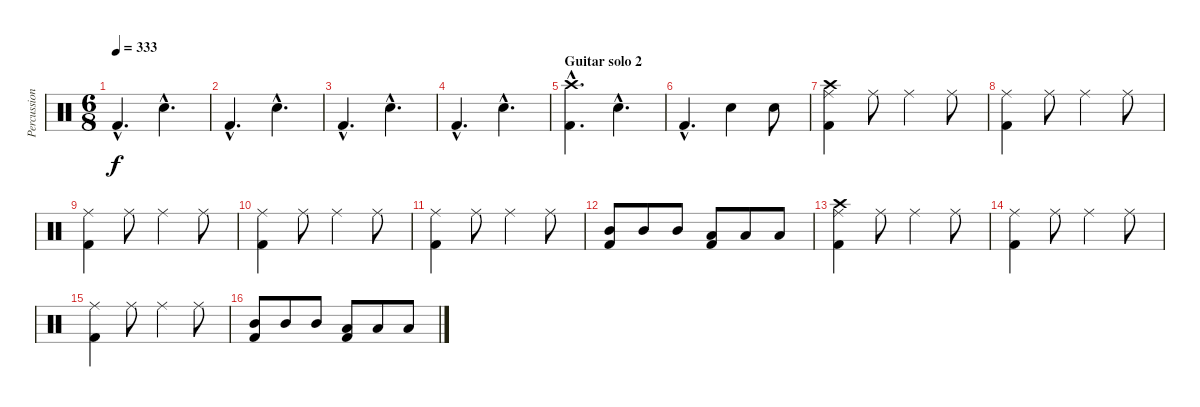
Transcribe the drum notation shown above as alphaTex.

\track ("Percussion" "Percussion") {instrument percussion}
\staff {score}
\articulation defaults
\ts (6 8)
\tempo 333
\clef neutral
\ks c "Kick (hit) 2"{hac}.4{d dy f} "Hand Clap (hit)"{hac}.4{d}
|
"Kick (hit) 2"{hac}.4{d} "Hand Clap (hit)"{hac}.4{d} |
"Kick (hit) 2"{hac}.4{d} "Hand Clap (hit)"{hac}.4{d} |
"Kick (hit) 2"{hac}.4{d} "Hand Clap (hit)"{hac}.4{d} |
\section ("" "Guitar solo 2")
("Crash high (hit)"{hac} "Kick (hit) 2"{hac}).4{d} "Snare (hit) 2"{hac}.4{d} |
"Kick (hit) 2"{hac}.4{d} "Electric Snare (hit)".4 "Electric Snare (hit)".8 |
("Crash high (hit)" "Ride (middle)" "Kick (hit) 2").4 "Ride (middle)".8 "Ride (middle)".4 "Ride (middle)".8 |
("Ride (middle)" "Kick (hit) 2").4 "Ride (middle)".8 "Ride (middle)".4 "Ride (middle)".8 |
("Ride (middle)" "Kick (hit) 2").4 "Ride (middle)".8 "Ride (middle)".4 "Ride (middle)".8 |
("Ride (middle)" "Kick (hit) 2").4 "Ride (middle)".8 "Ride (middle)".4 "Ride (middle)".8 |
("Ride (middle)" "Kick (hit) 2").4 "Ride (middle)".8 "Ride (middle)".4 "Ride (middle)".8 |
("Mid Tom (hit)" "Kick (hit) 2").8 "Mid Tom (hit)".8 "Mid Tom (hit)".8 ("Low Tom (hit)" "Kick (hit) 2").8 "Low Tom (hit)".8 "Low Tom (hit)".8 |
("Crash high (hit)" "Ride (middle)" "Kick (hit) 2").4 "Ride (middle)".8 "Ride (middle)".4 "Ride (middle)".8 |
("Ride (middle)" "Kick (hit) 2").4 "Ride (middle)".8 "Ride (middle)".4 "Ride (middle)".8 |
("Ride (middle)" "Kick (hit) 2").4 "Ride (middle)".8 "Ride (middle)".4 "Ride (middle)".8 |
("Mid Tom (hit)" "Kick (hit) 2").8 "Mid Tom (hit)".8 "Mid Tom (hit)".8 ("Low Tom (hit)" "Kick (hit) 2").8 "Low Tom (hit)".8 "Low Tom (hit)".8
